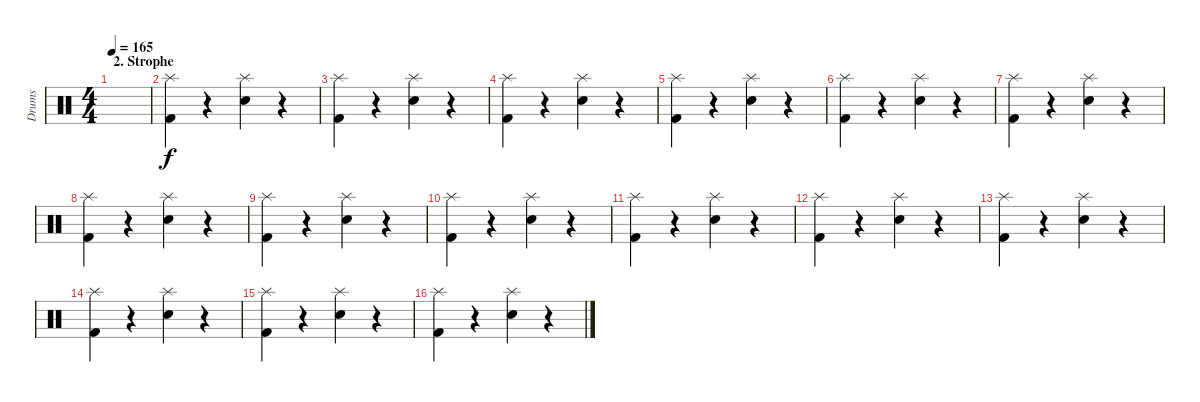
\track ("Drums" "Drums") {instrument percussion}
\staff {score}
\articulation defaults
\ts (4 4)
\section ("" "2. Strophe")
\tempo 165
\clef neutral
\ks c
|
("Kick (hit) 2" "Splash (hit)").4 r.4 ("Snare (hit) 2" "Splash (hit)").4 r.4 |
("Kick (hit) 2" "Splash (hit)").4 r.4 ("Snare (hit) 2" "Splash (hit)").4 r.4 |
("Kick (hit) 2" "Splash (hit)").4 r.4 ("Snare (hit) 2" "Splash (hit)").4 r.4 |
("Kick (hit) 2" "Splash (hit)").4 r.4 ("Snare (hit) 2" "Splash (hit)").4 r.4 |
("Kick (hit) 2" "Splash (hit)").4 r.4 ("Snare (hit) 2" "Splash (hit)").4 r.4 |
("Kick (hit) 2" "Splash (hit)").4 r.4 ("Snare (hit) 2" "Splash (hit)").4 r.4 |
("Kick (hit) 2" "Splash (hit)").4 r.4 ("Snare (hit) 2" "Splash (hit)").4 r.4 |
("Kick (hit) 2" "Splash (hit)").4 r.4 ("Snare (hit) 2" "Splash (hit)").4 r.4 |
("Kick (hit) 2" "Splash (hit)").4 r.4 ("Snare (hit) 2" "Splash (hit)").4 r.4 |
("Kick (hit) 2" "Splash (hit)").4 r.4 ("Snare (hit) 2" "Splash (hit)").4 r.4 |
("Kick (hit) 2" "Splash (hit)").4 r.4 ("Snare (hit) 2" "Splash (hit)").4 r.4 |
("Kick (hit) 2" "Splash (hit)").4 r.4 ("Snare (hit) 2" "Splash (hit)").4 r.4 |
("Kick (hit) 2" "Splash (hit)").4 r.4 ("Snare (hit) 2" "Splash (hit)").4 r.4 |
("Kick (hit) 2" "Splash (hit)").4 r.4 ("Snare (hit) 2" "Splash (hit)").4 r.4 |
("Kick (hit) 2" "Splash (hit)").4 r.4 ("Snare (hit) 2" "Splash (hit)").4 r.4
